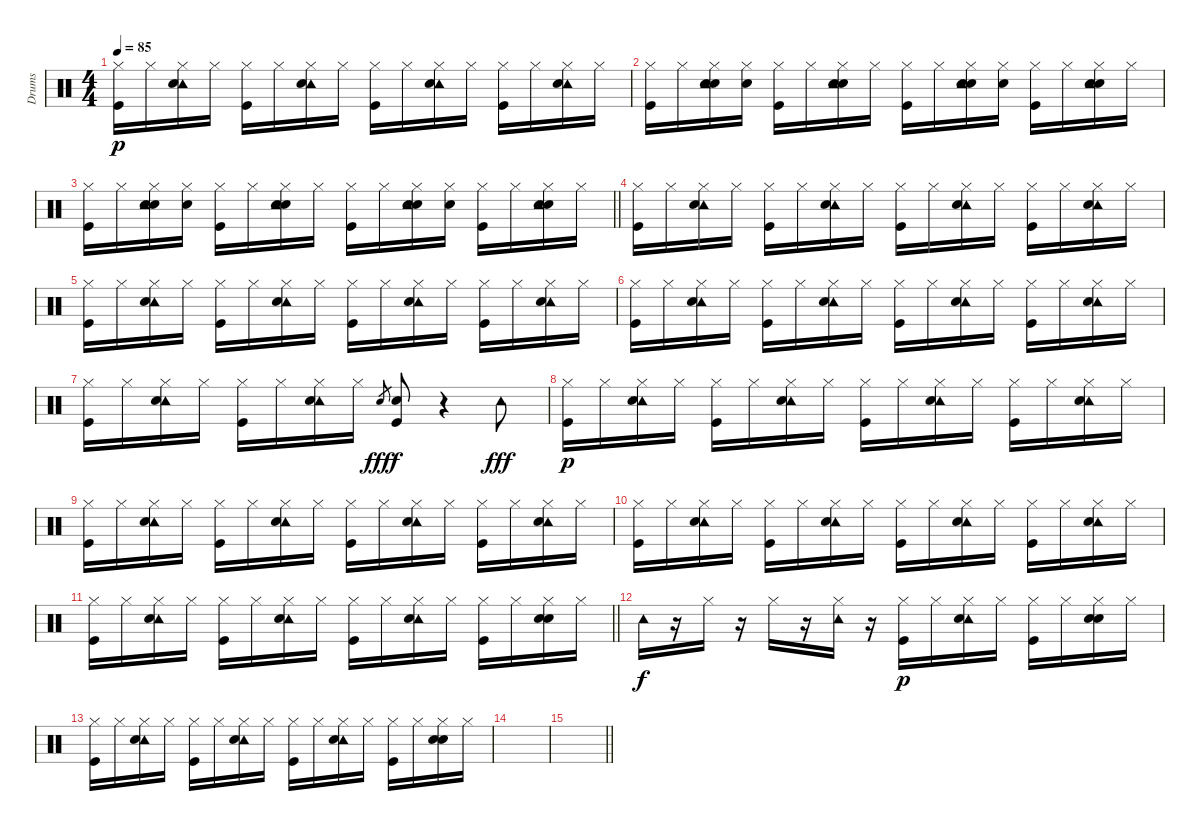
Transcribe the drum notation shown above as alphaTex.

\track ("Drums" "Drums") {instrument percussion}
\staff {score}
\articulation defaults
\ts (4 4)
\tempo 85
\clef neutral
\ks c
("Hi-Hat (closed)" "Kick (hit)").16{dy p} "Hi-Hat (closed)".16 ("Tambourine (hit)" "Hi-Hat (closed)" "Snare (hit) 2").16 "Hi-Hat (closed)".16 ("Hi-Hat (closed)" "Kick (hit)").16 "Hi-Hat (closed)".16 ("Tambourine (hit)" "Hi-Hat (closed)" "Snare (hit) 2").16 "Hi-Hat (closed)".16 ("Hi-Hat (closed)" "Kick (hit)").16 "Hi-Hat (closed)".16 ("Tambourine (hit)" "Hi-Hat (closed)" "Snare (hit) 2").16 "Hi-Hat (closed)".16 ("Hi-Hat (closed)" "Kick (hit)").16 "Hi-Hat (closed)".16 ("Tambourine (hit)" "Hi-Hat (closed)" "Snare (hit) 2").16 "Hi-Hat (closed)".16 |
("Hi-Hat (closed)" "Kick (hit)").16 "Hi-Hat (closed)".16 ("Hand Clap (hit)" "Tambourine (hit)" "Hi-Hat (closed)" "Snare (hit) 2").16 ("Hand Clap (hit)" "Hi-Hat (closed)").16 ("Hi-Hat (closed)" "Kick (hit)").16 "Hi-Hat (closed)".16 ("Hand Clap (hit)" "Tambourine (hit)" "Hi-Hat (closed)" "Snare (hit) 2").16 "Hi-Hat (closed)".16 ("Hi-Hat (closed)" "Kick (hit)").16 "Hi-Hat (closed)".16 ("Hand Clap (hit)" "Tambourine (hit)" "Hi-Hat (closed)" "Snare (hit) 2").16 ("Hand Clap (hit)" "Hi-Hat (closed)").16 ("Hi-Hat (closed)" "Kick (hit)").16 "Hi-Hat (closed)".16 ("Hand Clap (hit)" "Tambourine (hit)" "Hi-Hat (closed)" "Snare (hit) 2").16 "Hi-Hat (closed)".16 |
\barLineRight lightlight
("Hi-Hat (closed)" "Kick (hit)").16 "Hi-Hat (closed)".16 ("Hand Clap (hit)" "Tambourine (hit)" "Hi-Hat (closed)" "Snare (hit) 2").16 ("Hand Clap (hit)" "Hi-Hat (closed)").16 ("Hi-Hat (closed)" "Kick (hit)").16 "Hi-Hat (closed)".16 ("Hand Clap (hit)" "Tambourine (hit)" "Hi-Hat (closed)" "Snare (hit) 2").16 "Hi-Hat (closed)".16 ("Hi-Hat (closed)" "Kick (hit)").16 "Hi-Hat (closed)".16 ("Hand Clap (hit)" "Tambourine (hit)" "Hi-Hat (closed)" "Snare (hit) 2").16 ("Hand Clap (hit)" "Hi-Hat (closed)").16 ("Hi-Hat (closed)" "Kick (hit)").16 "Hi-Hat (closed)".16 ("Hand Clap (hit)" "Tambourine (hit)" "Hi-Hat (closed)" "Snare (hit) 2").16 "Hi-Hat (closed)".16 |
("Hi-Hat (closed)" "Kick (hit)").16 "Hi-Hat (closed)".16 ("Tambourine (hit)" "Hi-Hat (closed)" "Snare (hit) 2").16 "Hi-Hat (closed)".16 ("Hi-Hat (closed)" "Kick (hit)").16 "Hi-Hat (closed)".16 ("Tambourine (hit)" "Hi-Hat (closed)" "Snare (hit) 2").16 "Hi-Hat (closed)".16 ("Hi-Hat (closed)" "Kick (hit)").16 "Hi-Hat (closed)".16 ("Tambourine (hit)" "Hi-Hat (closed)" "Snare (hit) 2").16 "Hi-Hat (closed)".16 ("Hi-Hat (closed)" "Kick (hit)").16 "Hi-Hat (closed)".16 ("Tambourine (hit)" "Hi-Hat (closed)" "Snare (hit) 2").16 "Hi-Hat (closed)".16 |
("Hi-Hat (closed)" "Kick (hit)").16 "Hi-Hat (closed)".16 ("Tambourine (hit)" "Hi-Hat (closed)" "Snare (hit) 2").16 "Hi-Hat (closed)".16 ("Hi-Hat (closed)" "Kick (hit)").16 "Hi-Hat (closed)".16 ("Tambourine (hit)" "Hi-Hat (closed)" "Snare (hit) 2").16 "Hi-Hat (closed)".16 ("Hi-Hat (closed)" "Kick (hit)").16 "Hi-Hat (closed)".16 ("Tambourine (hit)" "Hi-Hat (closed)" "Snare (hit) 2").16 "Hi-Hat (closed)".16 ("Hi-Hat (closed)" "Kick (hit)").16 "Hi-Hat (closed)".16 ("Tambourine (hit)" "Hi-Hat (closed)" "Snare (hit) 2").16 "Hi-Hat (closed)".16 |
("Hi-Hat (closed)" "Kick (hit)").16 "Hi-Hat (closed)".16 ("Tambourine (hit)" "Hi-Hat (closed)" "Snare (hit) 2").16 "Hi-Hat (closed)".16 ("Hi-Hat (closed)" "Kick (hit)").16 "Hi-Hat (closed)".16 ("Tambourine (hit)" "Hi-Hat (closed)" "Snare (hit) 2").16 "Hi-Hat (closed)".16 ("Hi-Hat (closed)" "Kick (hit)").16 "Hi-Hat (closed)".16 ("Tambourine (hit)" "Hi-Hat (closed)" "Snare (hit) 2").16 "Hi-Hat (closed)".16 ("Hi-Hat (closed)" "Kick (hit)").16 "Hi-Hat (closed)".16 ("Tambourine (hit)" "Hi-Hat (closed)" "Snare (hit) 2").16 "Hi-Hat (closed)".16 |
("Hi-Hat (closed)" "Kick (hit)").16 "Hi-Hat (closed)".16 ("Tambourine (hit)" "Hi-Hat (closed)" "Snare (hit) 2").16 "Hi-Hat (closed)".16 ("Hi-Hat (closed)" "Kick (hit)").16 "Hi-Hat (closed)".16 ("Tambourine (hit)" "Hi-Hat (closed)" "Snare (hit) 2").16 "Hi-Hat (closed)".16 "Snare (hit) 2".8{gr dy fff} ("Snare (hit) 2" "Kick (hit)").8{dy f} r.4 "Tambourine (hit)".8{dy fff} |
("Hi-Hat (closed)" "Kick (hit)").16{dy p} "Hi-Hat (closed)".16 ("Tambourine (hit)" "Hi-Hat (closed)" "Snare (hit) 2").16 "Hi-Hat (closed)".16 ("Hi-Hat (closed)" "Kick (hit)").16 "Hi-Hat (closed)".16 ("Tambourine (hit)" "Hi-Hat (closed)" "Snare (hit) 2").16 "Hi-Hat (closed)".16 ("Hi-Hat (closed)" "Kick (hit)").16 "Hi-Hat (closed)".16 ("Tambourine (hit)" "Hi-Hat (closed)" "Snare (hit) 2").16 "Hi-Hat (closed)".16 ("Hi-Hat (closed)" "Kick (hit)").16 "Hi-Hat (closed)".16 ("Tambourine (hit)" "Hi-Hat (closed)" "Snare (hit) 2").16 "Hi-Hat (closed)".16 |
("Hi-Hat (closed)" "Kick (hit)").16 "Hi-Hat (closed)".16 ("Tambourine (hit)" "Hi-Hat (closed)" "Snare (hit) 2").16 "Hi-Hat (closed)".16 ("Hi-Hat (closed)" "Kick (hit)").16 "Hi-Hat (closed)".16 ("Tambourine (hit)" "Hi-Hat (closed)" "Snare (hit) 2").16 "Hi-Hat (closed)".16 ("Hi-Hat (closed)" "Kick (hit)").16 "Hi-Hat (closed)".16 ("Tambourine (hit)" "Hi-Hat (closed)" "Snare (hit) 2").16 "Hi-Hat (closed)".16 ("Hi-Hat (closed)" "Kick (hit)").16 "Hi-Hat (closed)".16 ("Tambourine (hit)" "Hi-Hat (closed)" "Snare (hit) 2").16 "Hi-Hat (closed)".16 |
("Hi-Hat (closed)" "Kick (hit)").16 "Hi-Hat (closed)".16 ("Tambourine (hit)" "Hi-Hat (closed)" "Snare (hit) 2").16 "Hi-Hat (closed)".16 ("Hi-Hat (closed)" "Kick (hit)").16 "Hi-Hat (closed)".16 ("Tambourine (hit)" "Hi-Hat (closed)" "Snare (hit) 2").16 "Hi-Hat (closed)".16 ("Hi-Hat (closed)" "Kick (hit)").16 "Hi-Hat (closed)".16 ("Tambourine (hit)" "Hi-Hat (closed)" "Snare (hit) 2").16 "Hi-Hat (closed)".16 ("Hi-Hat (closed)" "Kick (hit)").16 "Hi-Hat (closed)".16 ("Tambourine (hit)" "Hi-Hat (closed)" "Snare (hit) 2").16 "Hi-Hat (closed)".16 |
\barLineRight lightlight
("Hi-Hat (closed)" "Kick (hit)").16 "Hi-Hat (closed)".16 ("Tambourine (hit)" "Hi-Hat (closed)" "Snare (hit) 2").16 "Hi-Hat (closed)".16 ("Hi-Hat (closed)" "Kick (hit)").16 "Hi-Hat (closed)".16 ("Tambourine (hit)" "Hi-Hat (closed)" "Snare (hit) 2").16 "Hi-Hat (closed)".16 ("Hi-Hat (closed)" "Kick (hit)").16 "Hi-Hat (closed)".16 ("Tambourine (hit)" "Hi-Hat (closed)" "Snare (hit) 2").16 "Hi-Hat (closed)".16 ("Hi-Hat (closed)" "Kick (hit)").16 "Hi-Hat (closed)".16 ("Snare (hit) 2" "Hi-Hat (closed)" "Snare (hit) 2").16 "Hi-Hat (closed)".16 |
"Tambourine (hit)".16{dy f} r.16 "Hi-Hat (closed)".16 r.16 "Hi-Hat (closed)".16 r.16 ("Tambourine (hit)" "Hi-Hat (closed)").16 r.16 ("Hi-Hat (closed)" "Kick (hit)").16{dy p} "Hi-Hat (closed)".16 ("Tambourine (hit)" "Hi-Hat (closed)" "Snare (hit) 2").16 "Hi-Hat (closed)".16 ("Hi-Hat (closed)" "Kick (hit)").16 "Hi-Hat (closed)".16 ("Snare (hit) 2" "Hi-Hat (closed)" "Snare (hit) 2").16 "Hi-Hat (closed)".16 |
("Hi-Hat (closed)" "Kick (hit)").16 "Hi-Hat (closed)".16 ("Tambourine (hit)" "Hi-Hat (closed)" "Snare (hit) 2").16 "Hi-Hat (closed)".16 ("Hi-Hat (closed)" "Kick (hit)").16 "Hi-Hat (closed)".16 ("Tambourine (hit)" "Hi-Hat (closed)" "Snare (hit) 2").16 "Hi-Hat (closed)".16 ("Hi-Hat (closed)" "Kick (hit)").16 "Hi-Hat (closed)".16 ("Tambourine (hit)" "Hi-Hat (closed)" "Snare (hit) 2").16 "Hi-Hat (closed)".16 ("Hi-Hat (closed)" "Kick (hit)").16 "Hi-Hat (closed)".16 ("Snare (hit) 2" "Hi-Hat (closed)" "Snare (hit) 2").16 "Hi-Hat (closed)".16 |
|
\barLineRight lightlight
